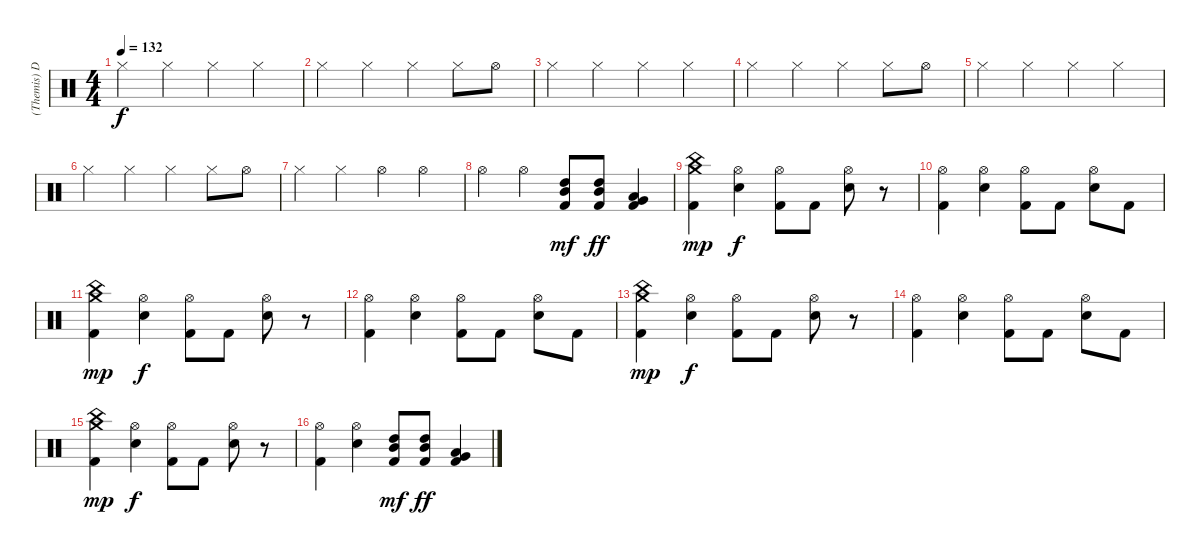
\track ("(Themis) Drums" "(Themis) D") {instrument percussion}
\staff {score}
\articulation defaults
\ts (4 4)
\tempo 132
\clef neutral
\ks c "Hi-Hat (closed)".4{dy f} "Hi-Hat (closed)".4 "Hi-Hat (closed)".4 "Hi-Hat (closed)".4
|
"Hi-Hat (closed)".4 "Hi-Hat (closed)".4 "Hi-Hat (closed)".4 "Hi-Hat (closed)".8 "Hi-Hat (open)".8 |
"Hi-Hat (closed)".4 "Hi-Hat (closed)".4 "Hi-Hat (closed)".4 "Hi-Hat (closed)".4 |
"Hi-Hat (closed)".4 "Hi-Hat (closed)".4 "Hi-Hat (closed)".4 "Hi-Hat (closed)".8 "Hi-Hat (open)".8 |
"Hi-Hat (closed)".4 "Hi-Hat (closed)".4 "Hi-Hat (closed)".4 "Hi-Hat (closed)".4 |
"Hi-Hat (closed)".4 "Hi-Hat (closed)".4 "Hi-Hat (closed)".4 "Hi-Hat (closed)".8 "Hi-Hat (open)".8 |
"Hi-Hat (closed)".4 "Hi-Hat (closed)".4 "Hi-Hat (open)".4 "Hi-Hat (open)".4 |
"Hi-Hat (open)".4 "Hi-Hat (open)".4 ("High Tom (hit)" "Mid Tom (hit)" "Kick (hit) 2").8{dy mf} ("Mid Tom (hit)" "High Tom (hit)" "Kick (hit) 2").8{dy ff} ("Very Low Tom (hit)" "Low Tom (hit)" "Kick (hit) 2").4 |
("Crash medium (hit)" "China (hit)" "Kick (hit) 2").4{dy mp} ("Hi-Hat (open)" "Electric Snare (hit)").4{dy f} ("Hi-Hat (open)" "Kick (hit) 2").8 "Kick (hit) 2".8 ("Hi-Hat (open)" "Electric Snare (hit)").8 r.8 |
("Hi-Hat (open)" "Kick (hit) 2").4 ("Hi-Hat (open)" "Electric Snare (hit)").4 ("Hi-Hat (open)" "Kick (hit) 2").8 "Kick (hit) 2".8 ("Hi-Hat (open)" "Electric Snare (hit)").8 "Kick (hit) 2".8 |
("Crash medium (hit)" "China (hit)" "Kick (hit) 2").4{dy mp} ("Hi-Hat (open)" "Electric Snare (hit)").4{dy f} ("Hi-Hat (open)" "Kick (hit) 2").8 "Kick (hit) 2".8 ("Hi-Hat (open)" "Electric Snare (hit)").8 r.8 |
("Hi-Hat (open)" "Kick (hit) 2").4 ("Hi-Hat (open)" "Electric Snare (hit)").4 ("Hi-Hat (open)" "Kick (hit) 2").8 "Kick (hit) 2".8 ("Hi-Hat (open)" "Electric Snare (hit)").8 "Kick (hit) 2".8 |
("Crash medium (hit)" "China (hit)" "Kick (hit) 2").4{dy mp} ("Hi-Hat (open)" "Electric Snare (hit)").4{dy f} ("Hi-Hat (open)" "Kick (hit) 2").8 "Kick (hit) 2".8 ("Hi-Hat (open)" "Electric Snare (hit)").8 r.8 |
("Hi-Hat (open)" "Kick (hit) 2").4 ("Hi-Hat (open)" "Electric Snare (hit)").4 ("Hi-Hat (open)" "Kick (hit) 2").8 "Kick (hit) 2".8 ("Hi-Hat (open)" "Electric Snare (hit)").8 "Kick (hit) 2".8 |
("Crash medium (hit)" "China (hit)" "Kick (hit) 2").4{dy mp} ("Hi-Hat (open)" "Electric Snare (hit)").4{dy f} ("Hi-Hat (open)" "Kick (hit) 2").8 "Kick (hit) 2".8 ("Hi-Hat (open)" "Electric Snare (hit)").8 r.8 |
("Hi-Hat (open)" "Kick (hit) 2").4 ("Hi-Hat (open)" "Electric Snare (hit)").4 ("High Tom (hit)" "Mid Tom (hit)" "Kick (hit) 2").8{dy mf} ("Mid Tom (hit)" "High Tom (hit)" "Kick (hit) 2").8{dy ff} ("Very Low Tom (hit)" "Low Tom (hit)" "Kick (hit) 2").4
